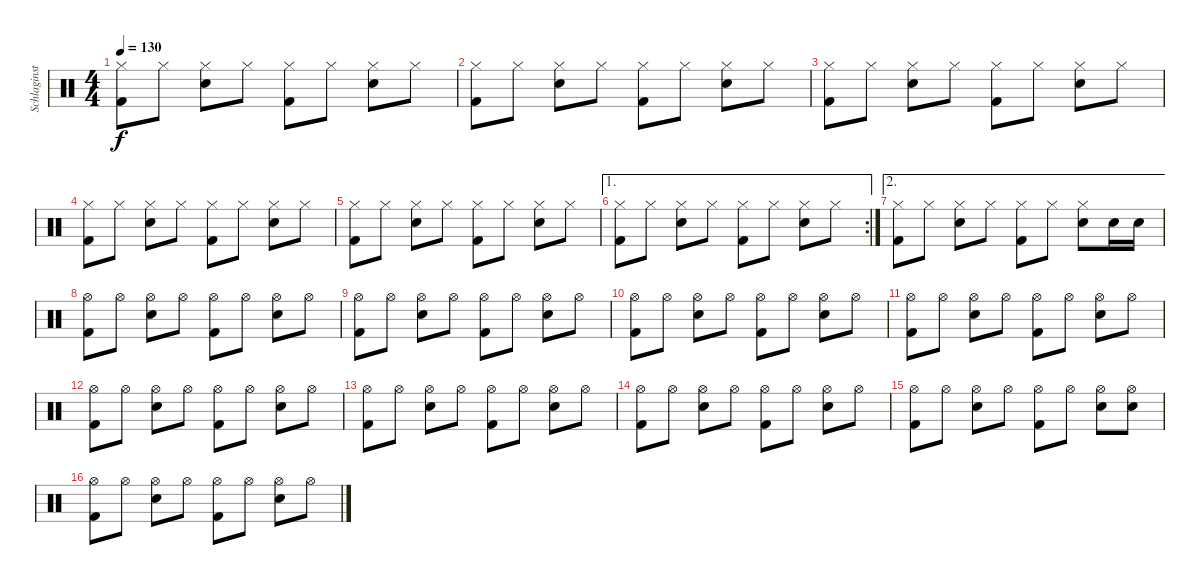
\track ("Schlaginstrumente - Auswahl" "Schlaginst") {instrument percussion}
\staff {score}
\articulation defaults
\ts (4 4)
\tempo 130
\clef neutral
\ks c
("Hi-Hat (closed)" "Kick (hit) 2").8{dy f} "Hi-Hat (closed)".8 ("Hi-Hat (closed)" "Snare (hit) 2").8 "Hi-Hat (closed)".8 ("Hi-Hat (closed)" "Kick (hit) 2").8 "Hi-Hat (closed)".8 ("Hi-Hat (closed)" "Snare (hit) 2").8 "Hi-Hat (closed)".8 |
("Hi-Hat (closed)" "Kick (hit) 2").8 "Hi-Hat (closed)".8 ("Hi-Hat (closed)" "Snare (hit) 2").8 "Hi-Hat (closed)".8 ("Hi-Hat (closed)" "Kick (hit) 2").8 "Hi-Hat (closed)".8 ("Hi-Hat (closed)" "Snare (hit) 2").8 "Hi-Hat (closed)".8 |
("Hi-Hat (closed)" "Kick (hit) 2").8 "Hi-Hat (closed)".8 ("Hi-Hat (closed)" "Snare (hit) 2").8 "Hi-Hat (closed)".8 ("Hi-Hat (closed)" "Kick (hit) 2").8 "Hi-Hat (closed)".8 ("Hi-Hat (closed)" "Snare (hit) 2").8 "Hi-Hat (closed)".8 |
("Hi-Hat (closed)" "Kick (hit) 2").8 "Hi-Hat (closed)".8 ("Hi-Hat (closed)" "Snare (hit) 2").8 "Hi-Hat (closed)".8 ("Hi-Hat (closed)" "Kick (hit) 2").8 "Hi-Hat (closed)".8 ("Hi-Hat (closed)" "Snare (hit) 2").8 "Hi-Hat (closed)".8 |
("Hi-Hat (closed)" "Kick (hit) 2").8 "Hi-Hat (closed)".8 ("Hi-Hat (closed)" "Snare (hit) 2").8 "Hi-Hat (closed)".8 ("Hi-Hat (closed)" "Kick (hit) 2").8 "Hi-Hat (closed)".8 ("Hi-Hat (closed)" "Snare (hit) 2").8 "Hi-Hat (closed)".8 |
\ae 1
\rc 2
("Hi-Hat (closed)" "Kick (hit) 2").8 "Hi-Hat (closed)".8 ("Hi-Hat (closed)" "Snare (hit) 2").8 "Hi-Hat (closed)".8 ("Hi-Hat (closed)" "Kick (hit) 2").8 "Hi-Hat (closed)".8 ("Hi-Hat (closed)" "Snare (hit) 2").8 "Hi-Hat (closed)".8 |
\ae 2
("Hi-Hat (closed)" "Kick (hit) 2").8 "Hi-Hat (closed)".8 ("Hi-Hat (closed)" "Snare (hit) 2").8 "Hi-Hat (closed)".8 ("Hi-Hat (closed)" "Kick (hit) 2").8 "Hi-Hat (closed)".8 ("Hi-Hat (closed)" "Snare (hit) 2").8 "Snare (hit) 2".16 "Snare (hit) 2".16 |
("Hi-Hat (open)" "Kick (hit) 2").8 "Hi-Hat (open)".8 ("Hi-Hat (open)" "Snare (hit) 2").8 "Hi-Hat (open)".8 ("Hi-Hat (open)" "Kick (hit) 2").8 "Hi-Hat (open)".8 ("Hi-Hat (open)" "Snare (hit) 2").8 "Hi-Hat (open)".8 |
("Hi-Hat (open)" "Kick (hit) 2").8 "Hi-Hat (open)".8 ("Hi-Hat (open)" "Snare (hit) 2").8 "Hi-Hat (open)".8 ("Hi-Hat (open)" "Kick (hit) 2").8 "Hi-Hat (open)".8 ("Hi-Hat (open)" "Snare (hit) 2").8 "Hi-Hat (open)".8 |
("Hi-Hat (open)" "Kick (hit) 2").8 "Hi-Hat (open)".8 ("Hi-Hat (open)" "Snare (hit) 2").8 "Hi-Hat (open)".8 ("Hi-Hat (open)" "Kick (hit) 2").8 "Hi-Hat (open)".8 ("Hi-Hat (open)" "Snare (hit) 2").8 "Hi-Hat (open)".8 |
("Hi-Hat (open)" "Kick (hit) 2").8 "Hi-Hat (open)".8 ("Hi-Hat (open)" "Snare (hit) 2").8 "Hi-Hat (open)".8 ("Hi-Hat (open)" "Kick (hit) 2").8 "Hi-Hat (open)".8 ("Hi-Hat (open)" "Snare (hit) 2").8 "Hi-Hat (open)".8 |
("Hi-Hat (open)" "Kick (hit) 2").8 "Hi-Hat (open)".8 ("Hi-Hat (open)" "Snare (hit) 2").8 "Hi-Hat (open)".8 ("Hi-Hat (open)" "Kick (hit) 2").8 "Hi-Hat (open)".8 ("Hi-Hat (open)" "Snare (hit) 2").8 "Hi-Hat (open)".8 |
("Hi-Hat (open)" "Kick (hit) 2").8 "Hi-Hat (open)".8 ("Hi-Hat (open)" "Snare (hit) 2").8 "Hi-Hat (open)".8 ("Hi-Hat (open)" "Kick (hit) 2").8 "Hi-Hat (open)".8 ("Hi-Hat (open)" "Snare (hit) 2").8 "Hi-Hat (open)".8 |
("Hi-Hat (open)" "Kick (hit) 2").8 "Hi-Hat (open)".8 ("Hi-Hat (open)" "Snare (hit) 2").8 "Hi-Hat (open)".8 ("Hi-Hat (open)" "Kick (hit) 2").8 "Hi-Hat (open)".8 ("Hi-Hat (open)" "Snare (hit) 2").8 "Hi-Hat (open)".8 |
("Hi-Hat (open)" "Kick (hit) 2").8 "Hi-Hat (open)".8 ("Hi-Hat (open)" "Snare (hit) 2").8 "Hi-Hat (open)".8 ("Hi-Hat (open)" "Kick (hit) 2").8 "Hi-Hat (open)".8 ("Hi-Hat (open)" "Snare (hit) 2").8 ("Hi-Hat (open)" "Snare (hit) 2").8 |
("Hi-Hat (open)" "Kick (hit) 2").8 "Hi-Hat (open)".8 ("Hi-Hat (open)" "Snare (hit) 2").8 "Hi-Hat (open)".8 ("Hi-Hat (open)" "Kick (hit) 2").8 "Hi-Hat (open)".8 ("Hi-Hat (open)" "Snare (hit) 2").8 "Hi-Hat (open)".8
